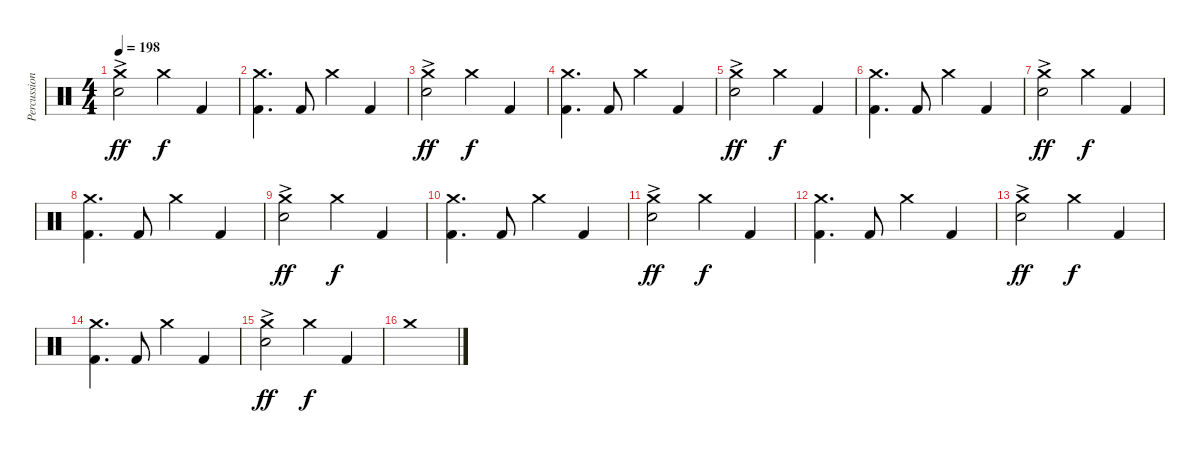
\track ("Percussion" "Percussion") {instrument percussion}
\staff {score}
\articulation defaults
\ts (4 4)
\tempo 198
\clef neutral
\ks c
("Crash medium (hit)" "Electric Snare (hit)"{ac}).2{dy ff} "Crash medium (hit)".4{dy f} "Kick (hit) 2".4 |
("Crash medium (hit)" "Kick (hit) 2").4{d} "Kick (hit) 2".8 "Crash medium (hit)".4 "Kick (hit) 2".4 |
("Crash medium (hit)" "Electric Snare (hit)"{ac}).2{dy ff} "Crash medium (hit)".4{dy f} "Kick (hit) 2".4 |
("Crash medium (hit)" "Kick (hit) 2").4{d} "Kick (hit) 2".8 "Crash medium (hit)".4 "Kick (hit) 2".4 |
("Crash medium (hit)" "Electric Snare (hit)"{ac}).2{dy ff} "Crash medium (hit)".4{dy f} "Kick (hit) 2".4 |
("Crash medium (hit)" "Kick (hit) 2").4{d} "Kick (hit) 2".8 "Crash medium (hit)".4 "Kick (hit) 2".4 |
("Crash medium (hit)" "Electric Snare (hit)"{ac}).2{dy ff} "Crash medium (hit)".4{dy f} "Kick (hit) 2".4 |
("Crash medium (hit)" "Kick (hit) 2").4{d} "Kick (hit) 2".8 "Crash medium (hit)".4 "Kick (hit) 2".4 |
("Crash medium (hit)" "Electric Snare (hit)"{ac}).2{dy ff} "Crash medium (hit)".4{dy f} "Kick (hit) 2".4 |
("Crash medium (hit)" "Kick (hit) 2").4{d} "Kick (hit) 2".8 "Crash medium (hit)".4 "Kick (hit) 2".4 |
("Crash medium (hit)" "Electric Snare (hit)"{ac}).2{dy ff} "Crash medium (hit)".4{dy f} "Kick (hit) 2".4 |
("Crash medium (hit)" "Kick (hit) 2").4{d} "Kick (hit) 2".8 "Crash medium (hit)".4 "Kick (hit) 2".4 |
("Crash medium (hit)" "Electric Snare (hit)"{ac}).2{dy ff} "Crash medium (hit)".4{dy f} "Kick (hit) 2".4 |
("Crash medium (hit)" "Kick (hit) 2").4{d} "Kick (hit) 2".8 "Crash medium (hit)".4 "Kick (hit) 2".4 |
("Crash medium (hit)" "Electric Snare (hit)"{ac}).2{dy ff} "Crash medium (hit)".4{dy f} "Kick (hit) 2".4 |
"Crash medium (hit)".1
